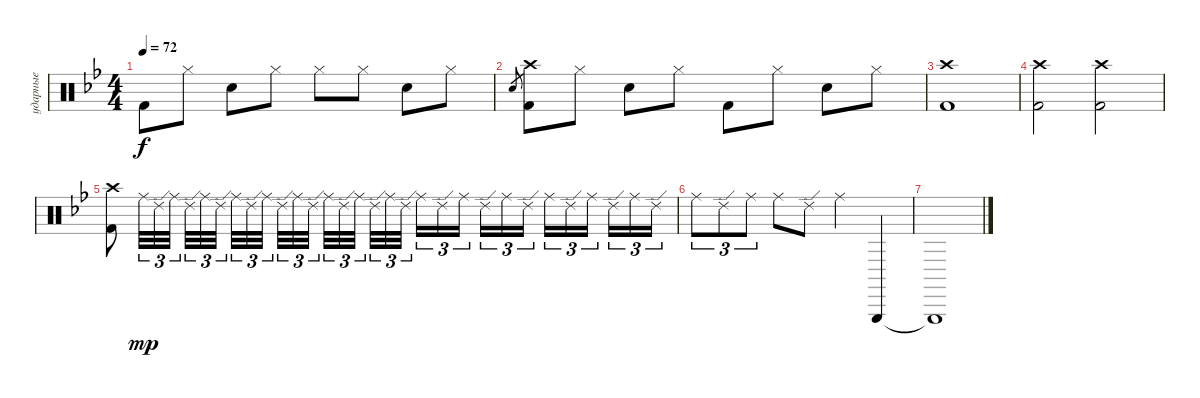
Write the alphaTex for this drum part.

\track ("ударные" "ударные") {instrument percussion}
\staff {score}
\articulation defaults
\ts (4 4)
\tempo 72
\clef neutral
\ks gminor "Kick (hit) 2".8{dy f} "Hi-Hat (closed)".8 "Electric Snare (hit)".8 "Hi-Hat (closed)".8 "Hi-Hat (closed)".8 "Hi-Hat (closed)".8 "Electric Snare (hit)".8 "Hi-Hat (closed)".8
|
"Electric Snare (hit)".8{gr} ("Crash high (hit)" "Kick (hit) 2").8 "Hi-Hat (closed)".8 "Electric Snare (hit)".8 "Hi-Hat (closed)".8 "Kick (hit) 2".8 "Hi-Hat (closed)".8 "Electric Snare (hit)".8 "Hi-Hat (closed)".8 |
("Crash high (hit)" "Kick (hit) 2").1 |
("Crash high (hit)" "Kick (hit) 2").2 ("Crash high (hit)" "Kick (hit) 2").2 |
("Crash high (hit)" "Kick (hit) 2").8 "Ride (middle)".32{tu (3 2) dy mp} "Ride (edge) 2".32{tu (3 2)} "Ride (middle)".32{tu (3 2) beam splitsecondary} "Ride (edge) 2".32{tu (3 2)} "Ride (middle)".32{tu (3 2)} "Ride (edge) 2".32{tu (3 2)} "Ride (middle)".32{tu (3 2)} "Ride (edge) 2".32{tu (3 2)} "Ride (middle)".32{tu (3 2) beam splitsecondary} "Ride (edge) 2".32{tu (3 2)} "Ride (middle)".32{tu (3 2)} "Ride (edge) 2".32{tu (3 2) beam splitsecondary} "Ride (middle)".32{tu (3 2)} "Ride (edge) 2".32{tu (3 2)} "Ride (middle)".32{tu (3 2) beam splitsecondary} "Ride (edge) 2".32{tu (3 2)} "Ride (middle)".32{tu (3 2)} "Ride (edge) 2".32{tu (3 2)} "Ride (middle)".16{tu (3 2)} "Ride (edge) 2".16{tu (3 2)} "Ride (middle)".16{tu (3 2) beam splitsecondary} "Ride (edge) 2".16{tu (3 2)} "Ride (middle)".16{tu (3 2)} "Ride (edge) 2".16{tu (3 2)} "Ride (middle)".16{tu (3 2)} "Ride (edge) 2".16{tu (3 2)} "Ride (middle)".16{tu (3 2) beam splitsecondary} "Ride (edge) 2".16{tu (3 2)} "Ride (middle)".16{tu (3 2)} "Ride (edge) 2".16{tu (3 2)} |
"Ride (middle)".8{tu (3 2)} "Ride (edge) 2".8{tu (3 2)} "Ride (middle)".8{tu (3 2)} "Ride (middle)".8 "Ride (edge) 2".8 "Ride (middle)".4 "Triangle (hit)".4 |
"Triangle (hit)"{t}.1
